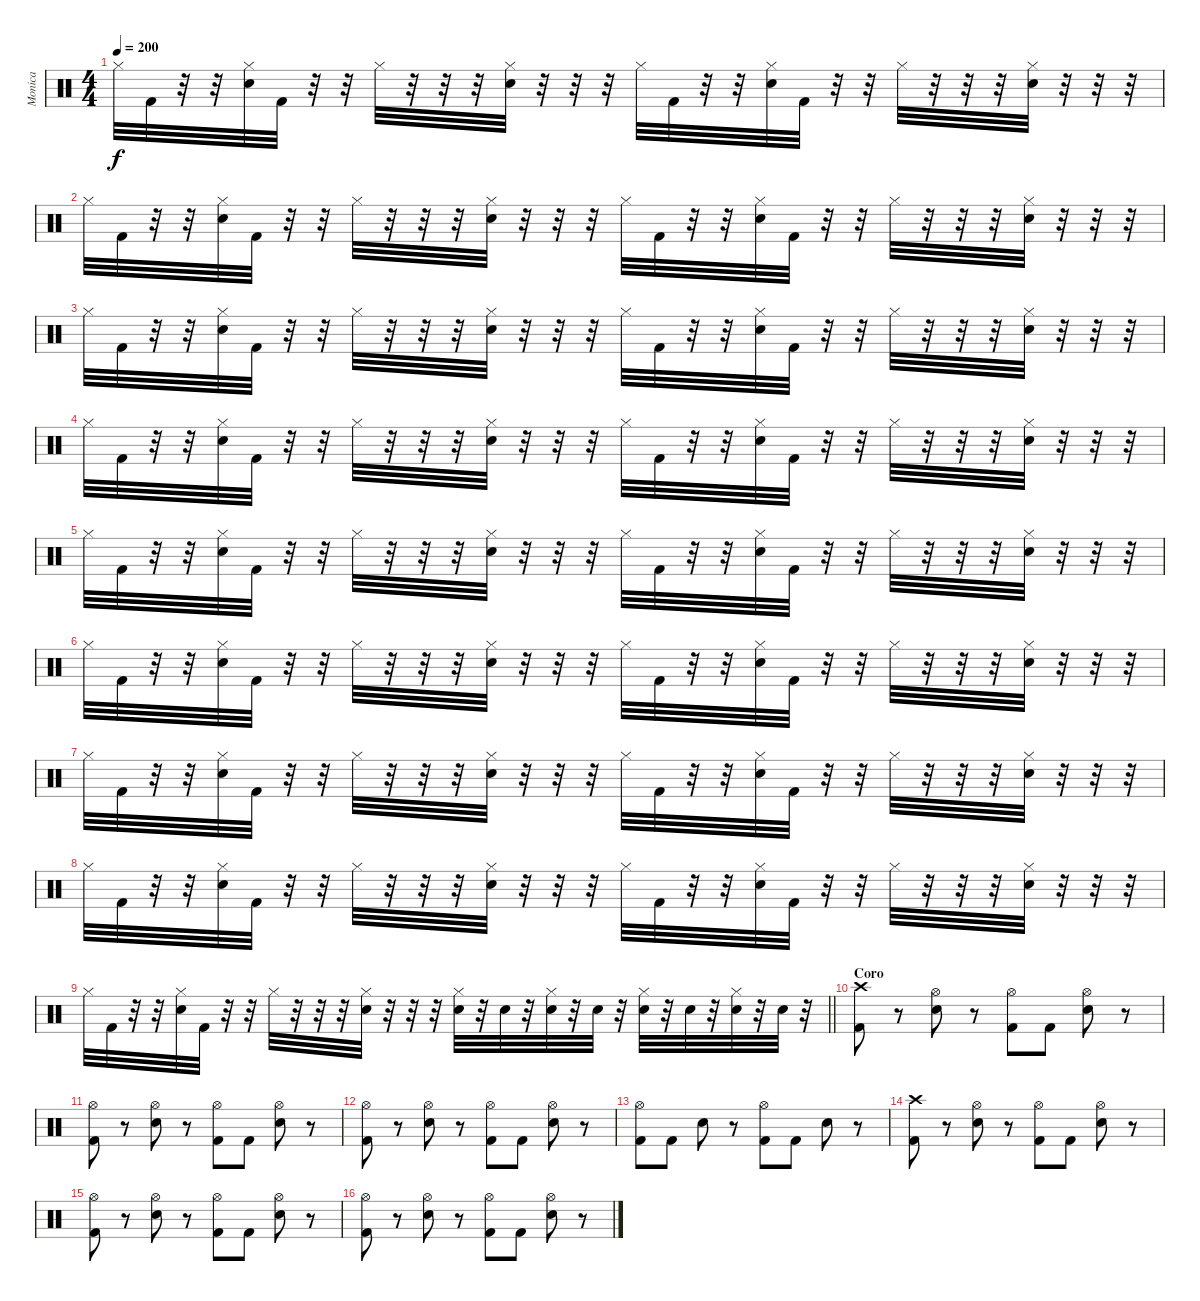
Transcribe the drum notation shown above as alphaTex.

\track ("Monica" "Monica") {instrument percussion}
\staff {score}
\articulation defaults
\ts (4 4)
\tempo 200
\clef neutral
\ks c "Hi-Hat (closed)".32{dy f} "Kick (hit) 2".32
r.32 r.32 ("Hi-Hat (closed)" "Snare (hit) 2").32 "Kick (hit) 2".32 r.32 r.32 "Hi-Hat (closed)".32 r.32 r.32 r.32 ("Hi-Hat (closed)" "Snare (hit) 2").32 r.32 r.32 r.32 "Hi-Hat (closed)".32 "Kick (hit) 2".32 r.32 r.32 ("Hi-Hat (closed)" "Snare (hit) 2").32 "Kick (hit) 2".32 r.32 r.32 "Hi-Hat (closed)".32 r.32 r.32 r.32 ("Hi-Hat (closed)" "Snare (hit) 2").32 r.32 r.32 r.32 |
"Hi-Hat (closed)".32 "Kick (hit) 2".32 r.32 r.32 ("Hi-Hat (closed)" "Snare (hit) 2").32 "Kick (hit) 2".32 r.32 r.32 "Hi-Hat (closed)".32 r.32 r.32 r.32 ("Hi-Hat (closed)" "Snare (hit) 2").32 r.32 r.32 r.32 "Hi-Hat (closed)".32 "Kick (hit) 2".32 r.32 r.32 ("Hi-Hat (closed)" "Snare (hit) 2").32 "Kick (hit) 2".32 r.32 r.32 "Hi-Hat (closed)".32 r.32 r.32 r.32 ("Hi-Hat (closed)" "Snare (hit) 2").32 r.32 r.32 r.32 |
"Hi-Hat (closed)".32 "Kick (hit) 2".32 r.32 r.32 ("Hi-Hat (closed)" "Snare (hit) 2").32 "Kick (hit) 2".32 r.32 r.32 "Hi-Hat (closed)".32 r.32 r.32 r.32 ("Hi-Hat (closed)" "Snare (hit) 2").32 r.32 r.32 r.32 "Hi-Hat (closed)".32 "Kick (hit) 2".32 r.32 r.32 ("Hi-Hat (closed)" "Snare (hit) 2").32 "Kick (hit) 2".32 r.32 r.32 "Hi-Hat (closed)".32 r.32 r.32 r.32 ("Hi-Hat (closed)" "Snare (hit) 2").32 r.32 r.32 r.32 |
"Hi-Hat (closed)".32 "Kick (hit) 2".32 r.32 r.32 ("Hi-Hat (closed)" "Snare (hit) 2").32 "Kick (hit) 2".32 r.32 r.32 "Hi-Hat (closed)".32 r.32 r.32 r.32 ("Hi-Hat (closed)" "Snare (hit) 2").32 r.32 r.32 r.32 "Hi-Hat (closed)".32 "Kick (hit) 2".32 r.32 r.32 ("Hi-Hat (closed)" "Snare (hit) 2").32 "Kick (hit) 2".32 r.32 r.32 "Hi-Hat (closed)".32 r.32 r.32 r.32 ("Hi-Hat (closed)" "Snare (hit) 2").32 r.32 r.32 r.32 |
"Hi-Hat (closed)".32 "Kick (hit) 2".32 r.32 r.32 ("Hi-Hat (closed)" "Snare (hit) 2").32 "Kick (hit) 2".32 r.32 r.32 "Hi-Hat (closed)".32 r.32 r.32 r.32 ("Hi-Hat (closed)" "Snare (hit) 2").32 r.32 r.32 r.32 "Hi-Hat (closed)".32 "Kick (hit) 2".32 r.32 r.32 ("Hi-Hat (closed)" "Snare (hit) 2").32 "Kick (hit) 2".32 r.32 r.32 "Hi-Hat (closed)".32 r.32 r.32 r.32 ("Hi-Hat (closed)" "Snare (hit) 2").32 r.32 r.32 r.32 |
"Hi-Hat (closed)".32 "Kick (hit) 2".32 r.32 r.32 ("Hi-Hat (closed)" "Snare (hit) 2").32 "Kick (hit) 2".32 r.32 r.32 "Hi-Hat (closed)".32 r.32 r.32 r.32 ("Hi-Hat (closed)" "Snare (hit) 2").32 r.32 r.32 r.32 "Hi-Hat (closed)".32 "Kick (hit) 2".32 r.32 r.32 ("Hi-Hat (closed)" "Snare (hit) 2").32 "Kick (hit) 2".32 r.32 r.32 "Hi-Hat (closed)".32 r.32 r.32 r.32 ("Hi-Hat (closed)" "Snare (hit) 2").32 r.32 r.32 r.32 |
"Hi-Hat (closed)".32 "Kick (hit) 2".32 r.32 r.32 ("Hi-Hat (closed)" "Snare (hit) 2").32 "Kick (hit) 2".32 r.32 r.32 "Hi-Hat (closed)".32 r.32 r.32 r.32 ("Hi-Hat (closed)" "Snare (hit) 2").32 r.32 r.32 r.32 "Hi-Hat (closed)".32 "Kick (hit) 2".32 r.32 r.32 ("Hi-Hat (closed)" "Snare (hit) 2").32 "Kick (hit) 2".32 r.32 r.32 "Hi-Hat (closed)".32 r.32 r.32 r.32 ("Hi-Hat (closed)" "Snare (hit) 2").32 r.32 r.32 r.32 |
"Hi-Hat (closed)".32 "Kick (hit) 2".32 r.32 r.32 ("Hi-Hat (closed)" "Snare (hit) 2").32 "Kick (hit) 2".32 r.32 r.32 "Hi-Hat (closed)".32 r.32 r.32 r.32 ("Hi-Hat (closed)" "Snare (hit) 2").32 r.32 r.32 r.32 "Hi-Hat (closed)".32 "Kick (hit) 2".32 r.32 r.32 ("Hi-Hat (closed)" "Snare (hit) 2").32 "Kick (hit) 2".32 r.32 r.32 "Hi-Hat (closed)".32 r.32 r.32 r.32 ("Hi-Hat (closed)" "Snare (hit) 2").32 r.32 r.32 r.32 |
\barLineRight lightlight "Hi-Hat (closed)".32 "Kick (hit) 2".32
r.32 r.32 ("Hi-Hat (closed)" "Snare (hit) 2").32 "Kick (hit) 2".32 r.32 r.32 "Hi-Hat (closed)".32 r.32 r.32 r.32 ("Hi-Hat (closed)" "Snare (hit) 2").32 r.32 r.32 r.32 ("Hi-Hat (closed)" "Snare (hit) 2").32 r.32 "Snare (hit) 2".32 r.32 ("Hi-Hat (closed)" "Snare (hit) 2").32 r.32 "Snare (hit) 2".32 r.32 ("Hi-Hat (closed)" "Snare (hit) 2").32 r.32 "Snare (hit) 2".32 r.32 ("Hi-Hat (closed)" "Snare (hit) 2").32 r.32 "Snare (hit) 2".32 r.32 |
\section ("" "Coro")
("Crash high (hit)" "Kick (hit) 2").8 r.8 ("Hi-Hat (open)" "Snare (hit) 2").8 r.8 ("Hi-Hat (open)" "Kick (hit) 2").8 "Kick (hit) 2".8 ("Hi-Hat (open)" "Snare (hit) 2").8 r.8 |
("Hi-Hat (open)" "Kick (hit) 2").8 r.8 ("Hi-Hat (open)" "Snare (hit) 2").8 r.8 ("Hi-Hat (open)" "Kick (hit) 2").8 "Kick (hit) 2".8 ("Hi-Hat (open)" "Snare (hit) 2").8 r.8 |
("Hi-Hat (open)" "Kick (hit) 2").8 r.8 ("Hi-Hat (open)" "Snare (hit) 2").8 r.8 ("Hi-Hat (open)" "Kick (hit) 2").8 "Kick (hit) 2".8 ("Hi-Hat (open)" "Snare (hit) 2").8 r.8 |
("Hi-Hat (open)" "Kick (hit) 2").8 "Kick (hit) 2".8 "Snare (hit) 2".8 r.8 ("Hi-Hat (open)" "Kick (hit) 2").8 "Kick (hit) 2".8 "Snare (hit) 2".8 r.8 |
("Crash high (hit)" "Kick (hit) 2").8 r.8 ("Hi-Hat (open)" "Snare (hit) 2").8 r.8 ("Hi-Hat (open)" "Kick (hit) 2").8 "Kick (hit) 2".8 ("Hi-Hat (open)" "Snare (hit) 2").8 r.8 |
("Hi-Hat (open)" "Kick (hit) 2").8 r.8 ("Hi-Hat (open)" "Snare (hit) 2").8 r.8 ("Hi-Hat (open)" "Kick (hit) 2").8 "Kick (hit) 2".8 ("Hi-Hat (open)" "Snare (hit) 2").8 r.8 |
("Hi-Hat (open)" "Kick (hit) 2").8 r.8 ("Hi-Hat (open)" "Snare (hit) 2").8 r.8 ("Hi-Hat (open)" "Kick (hit) 2").8 "Kick (hit) 2".8 ("Hi-Hat (open)" "Snare (hit) 2").8 r.8
